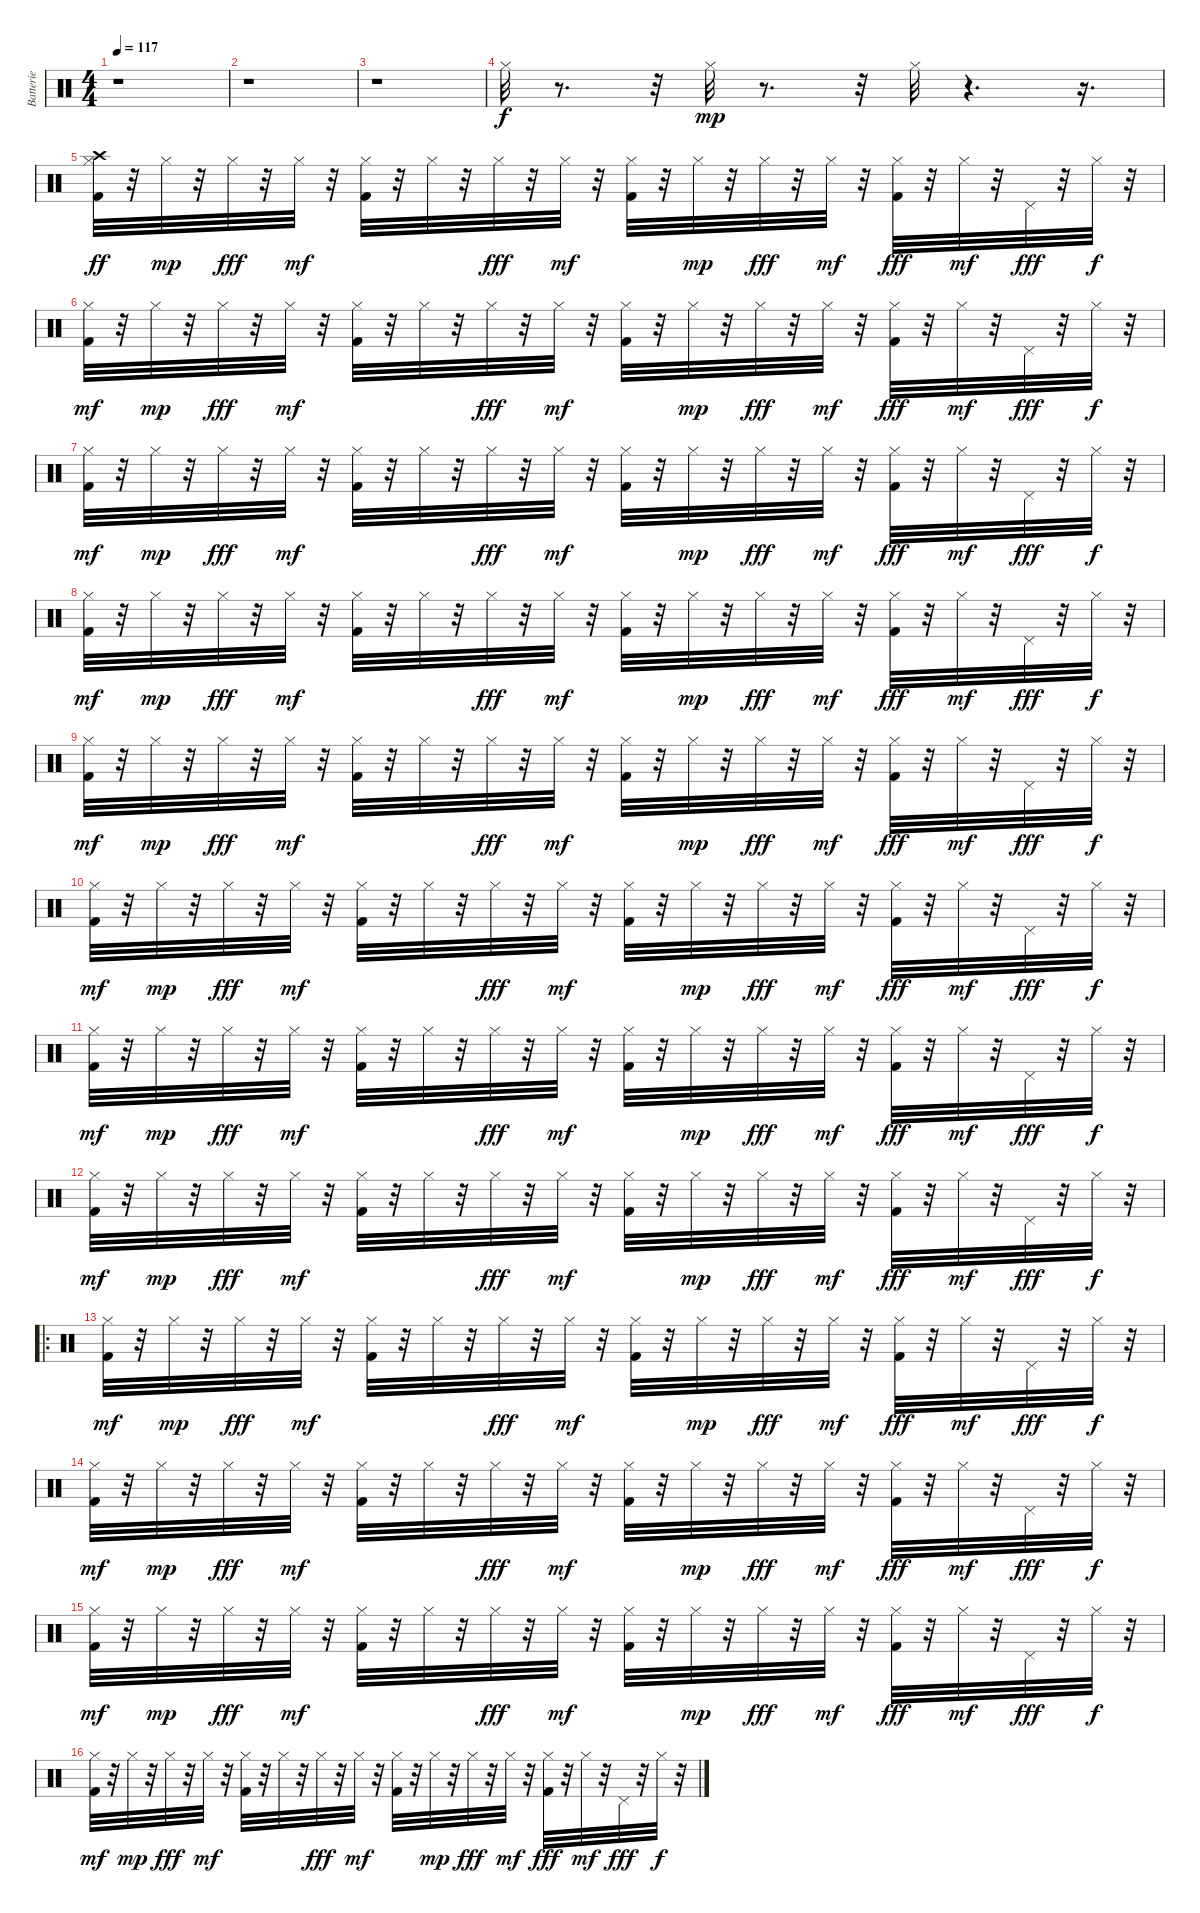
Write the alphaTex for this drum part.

\track ("Batterie" "Batterie") {instrument percussion}
\staff {score}
\articulation defaults
\ts (4 4)
\tempo 117
\clef neutral
\ks c
r.1{dy f} |
r.1 |
r.1 |
"Hi-Hat (closed)".32 r.8{d} r.32 "Hi-Hat (closed)".32{dy mp} r.8{d} r.32 "Hi-Hat (closed)".32 r.4{d} r.16{d} |
("Kick (hit) 2" "Hi-Hat (closed)" "Crash high (hit)").32{dy ff} r.32 "Hi-Hat (closed)".32{dy mp} r.32 "Hi-Hat (closed)".32{dy fff} r.32 "Hi-Hat (closed)".32{dy mf} r.32 ("Kick (hit) 2" "Hi-Hat (closed)").32 r.32 "Hi-Hat (closed)".32 r.32 "Hi-Hat (closed)".32{dy fff} r.32 "Hi-Hat (closed)".32{dy mf} r.32 ("Kick (hit) 2" "Hi-Hat (closed)").32 r.32 "Hi-Hat (closed)".32{dy mp} r.32 "Hi-Hat (closed)".32{dy fff} r.32 "Hi-Hat (closed)".32{dy mf} r.32 ("Kick (hit) 2" "Hi-Hat (closed)").32{dy fff} r.32 "Hi-Hat (closed)".32{dy mf} r.32 "Pedal Hi-Hat (hit)".32{dy fff} r.32 "Hi-Hat (closed)".32{dy f} r.32 |
("Kick (hit) 2" "Hi-Hat (closed)").32{dy mf} r.32 "Hi-Hat (closed)".32{dy mp} r.32 "Hi-Hat (closed)".32{dy fff} r.32 "Hi-Hat (closed)".32{dy mf} r.32 ("Kick (hit) 2" "Hi-Hat (closed)").32 r.32 "Hi-Hat (closed)".32 r.32 "Hi-Hat (closed)".32{dy fff} r.32 "Hi-Hat (closed)".32{dy mf} r.32 ("Kick (hit) 2" "Hi-Hat (closed)").32 r.32 "Hi-Hat (closed)".32{dy mp} r.32 "Hi-Hat (closed)".32{dy fff} r.32 "Hi-Hat (closed)".32{dy mf} r.32 ("Kick (hit) 2" "Hi-Hat (closed)").32{dy fff} r.32 "Hi-Hat (closed)".32{dy mf} r.32 "Pedal Hi-Hat (hit)".32{dy fff} r.32 "Hi-Hat (closed)".32{dy f} r.32 |
("Kick (hit) 2" "Hi-Hat (closed)").32{dy mf} r.32 "Hi-Hat (closed)".32{dy mp} r.32 "Hi-Hat (closed)".32{dy fff} r.32 "Hi-Hat (closed)".32{dy mf} r.32 ("Kick (hit) 2" "Hi-Hat (closed)").32 r.32 "Hi-Hat (closed)".32 r.32 "Hi-Hat (closed)".32{dy fff} r.32 "Hi-Hat (closed)".32{dy mf} r.32 ("Kick (hit) 2" "Hi-Hat (closed)").32 r.32 "Hi-Hat (closed)".32{dy mp} r.32 "Hi-Hat (closed)".32{dy fff} r.32 "Hi-Hat (closed)".32{dy mf} r.32 ("Kick (hit) 2" "Hi-Hat (closed)").32{dy fff} r.32 "Hi-Hat (closed)".32{dy mf} r.32 "Pedal Hi-Hat (hit)".32{dy fff} r.32 "Hi-Hat (closed)".32{dy f} r.32 |
("Kick (hit) 2" "Hi-Hat (closed)").32{dy mf} r.32 "Hi-Hat (closed)".32{dy mp} r.32 "Hi-Hat (closed)".32{dy fff} r.32 "Hi-Hat (closed)".32{dy mf} r.32 ("Kick (hit) 2" "Hi-Hat (closed)").32 r.32 "Hi-Hat (closed)".32 r.32 "Hi-Hat (closed)".32{dy fff} r.32 "Hi-Hat (closed)".32{dy mf} r.32 ("Kick (hit) 2" "Hi-Hat (closed)").32 r.32 "Hi-Hat (closed)".32{dy mp} r.32 "Hi-Hat (closed)".32{dy fff} r.32 "Hi-Hat (closed)".32{dy mf} r.32 ("Kick (hit) 2" "Hi-Hat (closed)").32{dy fff} r.32 "Hi-Hat (closed)".32{dy mf} r.32 "Pedal Hi-Hat (hit)".32{dy fff} r.32 "Hi-Hat (closed)".32{dy f} r.32 |
("Kick (hit) 2" "Hi-Hat (closed)").32{dy mf} r.32 "Hi-Hat (closed)".32{dy mp} r.32 "Hi-Hat (closed)".32{dy fff} r.32 "Hi-Hat (closed)".32{dy mf} r.32 ("Kick (hit) 2" "Hi-Hat (closed)").32 r.32 "Hi-Hat (closed)".32 r.32 "Hi-Hat (closed)".32{dy fff} r.32 "Hi-Hat (closed)".32{dy mf} r.32 ("Kick (hit) 2" "Hi-Hat (closed)").32 r.32 "Hi-Hat (closed)".32{dy mp} r.32 "Hi-Hat (closed)".32{dy fff} r.32 "Hi-Hat (closed)".32{dy mf} r.32 ("Kick (hit) 2" "Hi-Hat (closed)").32{dy fff} r.32 "Hi-Hat (closed)".32{dy mf} r.32 "Pedal Hi-Hat (hit)".32{dy fff} r.32 "Hi-Hat (closed)".32{dy f} r.32 |
("Kick (hit) 2" "Hi-Hat (closed)").32{dy mf} r.32 "Hi-Hat (closed)".32{dy mp} r.32 "Hi-Hat (closed)".32{dy fff} r.32 "Hi-Hat (closed)".32{dy mf} r.32 ("Kick (hit) 2" "Hi-Hat (closed)").32 r.32 "Hi-Hat (closed)".32 r.32 "Hi-Hat (closed)".32{dy fff} r.32 "Hi-Hat (closed)".32{dy mf} r.32 ("Kick (hit) 2" "Hi-Hat (closed)").32 r.32 "Hi-Hat (closed)".32{dy mp} r.32 "Hi-Hat (closed)".32{dy fff} r.32 "Hi-Hat (closed)".32{dy mf} r.32 ("Kick (hit) 2" "Hi-Hat (closed)").32{dy fff} r.32 "Hi-Hat (closed)".32{dy mf} r.32 "Pedal Hi-Hat (hit)".32{dy fff} r.32 "Hi-Hat (closed)".32{dy f} r.32 |
("Kick (hit) 2" "Hi-Hat (closed)").32{dy mf} r.32 "Hi-Hat (closed)".32{dy mp} r.32 "Hi-Hat (closed)".32{dy fff} r.32 "Hi-Hat (closed)".32{dy mf} r.32 ("Kick (hit) 2" "Hi-Hat (closed)").32 r.32 "Hi-Hat (closed)".32 r.32 "Hi-Hat (closed)".32{dy fff} r.32 "Hi-Hat (closed)".32{dy mf} r.32 ("Kick (hit) 2" "Hi-Hat (closed)").32 r.32 "Hi-Hat (closed)".32{dy mp} r.32 "Hi-Hat (closed)".32{dy fff} r.32 "Hi-Hat (closed)".32{dy mf} r.32 ("Kick (hit) 2" "Hi-Hat (closed)").32{dy fff} r.32 "Hi-Hat (closed)".32{dy mf} r.32 "Pedal Hi-Hat (hit)".32{dy fff} r.32 "Hi-Hat (closed)".32{dy f} r.32 |
("Kick (hit) 2" "Hi-Hat (closed)").32{dy mf} r.32 "Hi-Hat (closed)".32{dy mp} r.32 "Hi-Hat (closed)".32{dy fff} r.32 "Hi-Hat (closed)".32{dy mf} r.32 ("Kick (hit) 2" "Hi-Hat (closed)").32 r.32 "Hi-Hat (closed)".32 r.32 "Hi-Hat (closed)".32{dy fff} r.32 "Hi-Hat (closed)".32{dy mf} r.32 ("Kick (hit) 2" "Hi-Hat (closed)").32 r.32 "Hi-Hat (closed)".32{dy mp} r.32 "Hi-Hat (closed)".32{dy fff} r.32 "Hi-Hat (closed)".32{dy mf} r.32 ("Kick (hit) 2" "Hi-Hat (closed)").32{dy fff} r.32 "Hi-Hat (closed)".32{dy mf} r.32 "Pedal Hi-Hat (hit)".32{dy fff} r.32 "Hi-Hat (closed)".32{dy f} r.32 |
\ro
("Kick (hit) 2" "Hi-Hat (closed)").32{dy mf} r.32 "Hi-Hat (closed)".32{dy mp} r.32 "Hi-Hat (closed)".32{dy fff} r.32 "Hi-Hat (closed)".32{dy mf} r.32 ("Kick (hit) 2" "Hi-Hat (closed)").32 r.32 "Hi-Hat (closed)".32 r.32 "Hi-Hat (closed)".32{dy fff} r.32 "Hi-Hat (closed)".32{dy mf} r.32 ("Kick (hit) 2" "Hi-Hat (closed)").32 r.32 "Hi-Hat (closed)".32{dy mp} r.32 "Hi-Hat (closed)".32{dy fff} r.32 "Hi-Hat (closed)".32{dy mf} r.32 ("Kick (hit) 2" "Hi-Hat (closed)").32{dy fff} r.32 "Hi-Hat (closed)".32{dy mf} r.32 "Pedal Hi-Hat (hit)".32{dy fff} r.32 "Hi-Hat (closed)".32{dy f} r.32 |
("Kick (hit) 2" "Hi-Hat (closed)").32{dy mf} r.32 "Hi-Hat (closed)".32{dy mp} r.32 "Hi-Hat (closed)".32{dy fff} r.32 "Hi-Hat (closed)".32{dy mf} r.32 ("Kick (hit) 2" "Hi-Hat (closed)").32 r.32 "Hi-Hat (closed)".32 r.32 "Hi-Hat (closed)".32{dy fff} r.32 "Hi-Hat (closed)".32{dy mf} r.32 ("Kick (hit) 2" "Hi-Hat (closed)").32 r.32 "Hi-Hat (closed)".32{dy mp} r.32 "Hi-Hat (closed)".32{dy fff} r.32 "Hi-Hat (closed)".32{dy mf} r.32 ("Kick (hit) 2" "Hi-Hat (closed)").32{dy fff} r.32 "Hi-Hat (closed)".32{dy mf} r.32 "Pedal Hi-Hat (hit)".32{dy fff} r.32 "Hi-Hat (closed)".32{dy f} r.32 |
("Kick (hit) 2" "Hi-Hat (closed)").32{dy mf} r.32 "Hi-Hat (closed)".32{dy mp} r.32 "Hi-Hat (closed)".32{dy fff} r.32 "Hi-Hat (closed)".32{dy mf} r.32 ("Kick (hit) 2" "Hi-Hat (closed)").32 r.32 "Hi-Hat (closed)".32 r.32 "Hi-Hat (closed)".32{dy fff} r.32 "Hi-Hat (closed)".32{dy mf} r.32 ("Kick (hit) 2" "Hi-Hat (closed)").32 r.32 "Hi-Hat (closed)".32{dy mp} r.32 "Hi-Hat (closed)".32{dy fff} r.32 "Hi-Hat (closed)".32{dy mf} r.32 ("Kick (hit) 2" "Hi-Hat (closed)").32{dy fff} r.32 "Hi-Hat (closed)".32{dy mf} r.32 "Pedal Hi-Hat (hit)".32{dy fff} r.32 "Hi-Hat (closed)".32{dy f} r.32 |
("Kick (hit) 2" "Hi-Hat (closed)").32{dy mf} r.32 "Hi-Hat (closed)".32{dy mp} r.32 "Hi-Hat (closed)".32{dy fff} r.32 "Hi-Hat (closed)".32{dy mf} r.32 ("Kick (hit) 2" "Hi-Hat (closed)").32 r.32 "Hi-Hat (closed)".32 r.32 "Hi-Hat (closed)".32{dy fff} r.32 "Hi-Hat (closed)".32{dy mf} r.32 ("Kick (hit) 2" "Hi-Hat (closed)").32 r.32 "Hi-Hat (closed)".32{dy mp} r.32 "Hi-Hat (closed)".32{dy fff} r.32 "Hi-Hat (closed)".32{dy mf} r.32 ("Kick (hit) 2" "Hi-Hat (closed)").32{dy fff} r.32 "Hi-Hat (closed)".32{dy mf} r.32 "Pedal Hi-Hat (hit)".32{dy fff} r.32 "Hi-Hat (closed)".32{dy f} r.32
